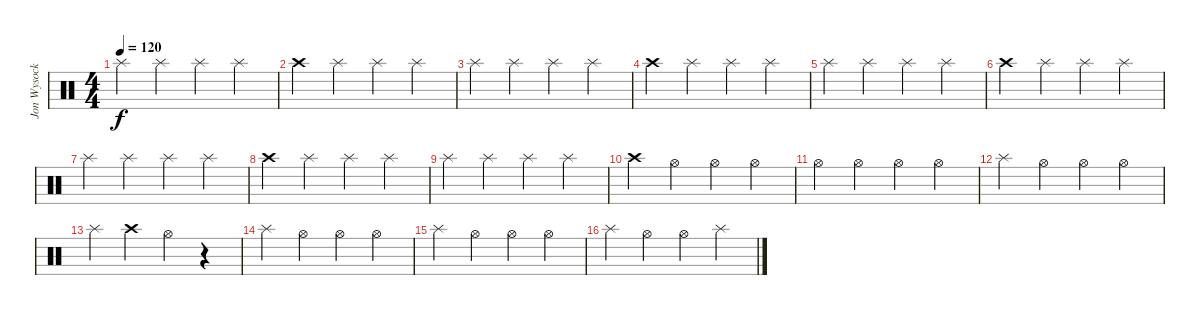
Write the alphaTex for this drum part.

\track ("Jon Wysocki cymbals" "Jon Wysock") {instrument percussion}
\staff {score}
\articulation defaults
\ts (4 4)
\tempo 120
\clef neutral
\ks c "Splash (hit)".4{dy f} "Splash (hit)".4 "Splash (hit)".4 "Splash (hit)".4
|
"Crash high (hit)".4 "Splash (hit)".4 "Splash (hit)".4 "Splash (hit)".4 |
"Splash (hit)".4 "Splash (hit)".4 "Splash (hit)".4 "Splash (hit)".4 |
"Crash high (hit)".4 "Splash (hit)".4 "Splash (hit)".4 "Splash (hit)".4 |
"Splash (hit)".4 "Splash (hit)".4 "Splash (hit)".4 "Splash (hit)".4 |
"Crash high (hit)".4 "Splash (hit)".4 "Splash (hit)".4 "Splash (hit)".4 |
"Splash (hit)".4 "Splash (hit)".4 "Splash (hit)".4 "Splash (hit)".4 |
"Crash high (hit)".4 "Splash (hit)".4 "Splash (hit)".4 "Splash (hit)".4 |
"Splash (hit)".4 "Splash (hit)".4 "Splash (hit)".4 "Splash (hit)".4 |
"Crash high (hit)".4 "Hi-Hat (open)".4 "Hi-Hat (open)".4 "Hi-Hat (open)".4 |
"Hi-Hat (open)".4 "Hi-Hat (open)".4 "Hi-Hat (open)".4 "Hi-Hat (open)".4 |
"Splash (hit)".4 "Hi-Hat (open)".4 "Hi-Hat (open)".4 "Hi-Hat (open)".4 |
"Splash (hit)".4 "Crash high (hit)".4 "Hi-Hat (open)".4 r.4 |
"Splash (hit)".4 "Hi-Hat (open)".4 "Hi-Hat (open)".4 "Hi-Hat (open)".4 |
"Splash (hit)".4 "Hi-Hat (open)".4 "Hi-Hat (open)".4 "Hi-Hat (open)".4 |
"Splash (hit)".4 "Hi-Hat (open)".4 "Hi-Hat (open)".4 "Splash (hit)".4
